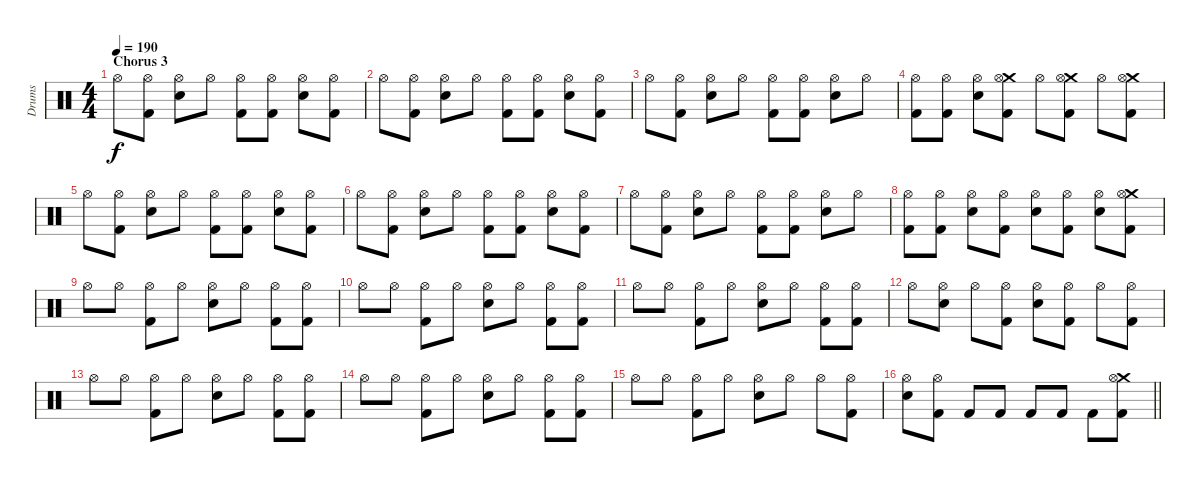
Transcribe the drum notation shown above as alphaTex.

\track ("Drums" "Drums") {instrument percussion}
\staff {score}
\articulation defaults
\ts (4 4)
\section ("" "Chorus 3")
\tempo 190
\clef neutral
\ks c "Hi-Hat (open)".8{dy f}
("Hi-Hat (open)" "Kick (hit) 2").8 ("Hi-Hat (open)" "Electric Snare (hit)").8 "Hi-Hat (open)".8 ("Hi-Hat (open)" "Kick (hit) 2").8 ("Hi-Hat (open)" "Kick (hit) 2").8 ("Hi-Hat (open)" "Electric Snare (hit)").8 ("Hi-Hat (open)" "Kick (hit) 2").8 |
"Hi-Hat (open)".8 ("Hi-Hat (open)" "Kick (hit) 2").8 ("Hi-Hat (open)" "Electric Snare (hit)").8 "Hi-Hat (open)".8 ("Hi-Hat (open)" "Kick (hit) 2").8 ("Hi-Hat (open)" "Kick (hit) 2").8 ("Hi-Hat (open)" "Electric Snare (hit)").8 ("Hi-Hat (open)" "Kick (hit) 2").8 |
"Hi-Hat (open)".8 ("Hi-Hat (open)" "Kick (hit) 2").8 ("Hi-Hat (open)" "Electric Snare (hit)").8 "Hi-Hat (open)".8 ("Hi-Hat (open)" "Kick (hit) 2").8 ("Hi-Hat (open)" "Kick (hit) 2").8 ("Hi-Hat (open)" "Electric Snare (hit)").8 "Hi-Hat (open)".8 |
("Hi-Hat (open)" "Kick (hit) 2").8 ("Hi-Hat (open)" "Kick (hit) 2").8 ("Hi-Hat (open)" "Electric Snare (hit)").8 ("Crash medium (hit)" "Hi-Hat (open)" "Kick (hit) 2").8 "Hi-Hat (open)".8 ("Crash medium (hit)" "Hi-Hat (open)" "Kick (hit) 2").8 "Hi-Hat (open)".8 ("Crash medium (hit)" "Hi-Hat (open)" "Kick (hit) 2").8 |
"Hi-Hat (open)".8 ("Hi-Hat (open)" "Kick (hit) 2").8 ("Hi-Hat (open)" "Electric Snare (hit)").8 "Hi-Hat (open)".8 ("Hi-Hat (open)" "Kick (hit) 2").8 ("Hi-Hat (open)" "Kick (hit) 2").8 ("Hi-Hat (open)" "Electric Snare (hit)").8 ("Hi-Hat (open)" "Kick (hit) 2").8 |
"Hi-Hat (open)".8 ("Hi-Hat (open)" "Kick (hit) 2").8 ("Hi-Hat (open)" "Electric Snare (hit)").8 "Hi-Hat (open)".8 ("Hi-Hat (open)" "Kick (hit) 2").8 ("Hi-Hat (open)" "Kick (hit) 2").8 ("Hi-Hat (open)" "Electric Snare (hit)").8 ("Hi-Hat (open)" "Kick (hit) 2").8 |
"Hi-Hat (open)".8 ("Hi-Hat (open)" "Kick (hit) 2").8 ("Hi-Hat (open)" "Electric Snare (hit)").8 "Hi-Hat (open)".8 ("Hi-Hat (open)" "Kick (hit) 2").8 ("Hi-Hat (open)" "Kick (hit) 2").8 ("Hi-Hat (open)" "Electric Snare (hit)").8 "Hi-Hat (open)".8 |
("Hi-Hat (open)" "Kick (hit) 2").8 ("Hi-Hat (open)" "Kick (hit) 2").8 ("Hi-Hat (open)" "Electric Snare (hit)").8 ("Hi-Hat (open)" "Kick (hit) 2").8 ("Hi-Hat (open)" "Electric Snare (hit)").8 ("Hi-Hat (open)" "Kick (hit) 2").8 ("Hi-Hat (open)" "Electric Snare (hit)").8 ("Crash medium (hit)" "Hi-Hat (open)" "Kick (hit) 2").8 |
"Hi-Hat (open)".8 "Hi-Hat (open)".8 ("Hi-Hat (open)" "Kick (hit) 2").8 "Hi-Hat (open)".8 ("Hi-Hat (open)" "Electric Snare (hit)").8 "Hi-Hat (open)".8 ("Hi-Hat (open)" "Kick (hit) 2").8 ("Hi-Hat (open)" "Kick (hit) 2").8 |
"Hi-Hat (open)".8 "Hi-Hat (open)".8 ("Hi-Hat (open)" "Kick (hit) 2").8 "Hi-Hat (open)".8 ("Hi-Hat (open)" "Electric Snare (hit)").8 "Hi-Hat (open)".8 ("Hi-Hat (open)" "Kick (hit) 2").8 ("Hi-Hat (open)" "Kick (hit) 2").8 |
"Hi-Hat (open)".8 "Hi-Hat (open)".8 ("Hi-Hat (open)" "Kick (hit) 2").8 "Hi-Hat (open)".8 ("Hi-Hat (open)" "Electric Snare (hit)").8 "Hi-Hat (open)".8 ("Hi-Hat (open)" "Kick (hit) 2").8 ("Hi-Hat (open)" "Kick (hit) 2").8 |
"Hi-Hat (open)".8 ("Hi-Hat (open)" "Electric Snare (hit)").8 "Hi-Hat (open)".8 ("Hi-Hat (open)" "Kick (hit) 2").8 ("Hi-Hat (open)" "Electric Snare (hit)").8 ("Hi-Hat (open)" "Kick (hit) 2").8 "Hi-Hat (open)".8 ("Hi-Hat (open)" "Kick (hit) 2").8 |
"Hi-Hat (open)".8 "Hi-Hat (open)".8 ("Hi-Hat (open)" "Kick (hit) 2").8 "Hi-Hat (open)".8 ("Hi-Hat (open)" "Electric Snare (hit)").8 "Hi-Hat (open)".8 ("Hi-Hat (open)" "Kick (hit) 2").8 ("Hi-Hat (open)" "Kick (hit) 2").8 |
"Hi-Hat (open)".8 "Hi-Hat (open)".8 ("Hi-Hat (open)" "Kick (hit) 2").8 "Hi-Hat (open)".8 ("Hi-Hat (open)" "Electric Snare (hit)").8 "Hi-Hat (open)".8 ("Hi-Hat (open)" "Kick (hit) 2").8 ("Hi-Hat (open)" "Kick (hit) 2").8 |
"Hi-Hat (open)".8 "Hi-Hat (open)".8 ("Hi-Hat (open)" "Kick (hit) 2").8 "Hi-Hat (open)".8 ("Hi-Hat (open)" "Electric Snare (hit)").8 "Hi-Hat (open)".8 "Hi-Hat (open)".8 ("Hi-Hat (open)" "Kick (hit) 2").8 |
\barLineRight lightlight
("Hi-Hat (open)" "Electric Snare (hit)").8 ("Hi-Hat (open)" "Kick (hit) 2").8 "Kick (hit) 2".8 "Kick (hit) 2".8 "Kick (hit) 2".8 "Kick (hit) 2".8 "Kick (hit) 2".8 ("Crash medium (hit)" "Hi-Hat (open)" "Kick (hit) 2").8
